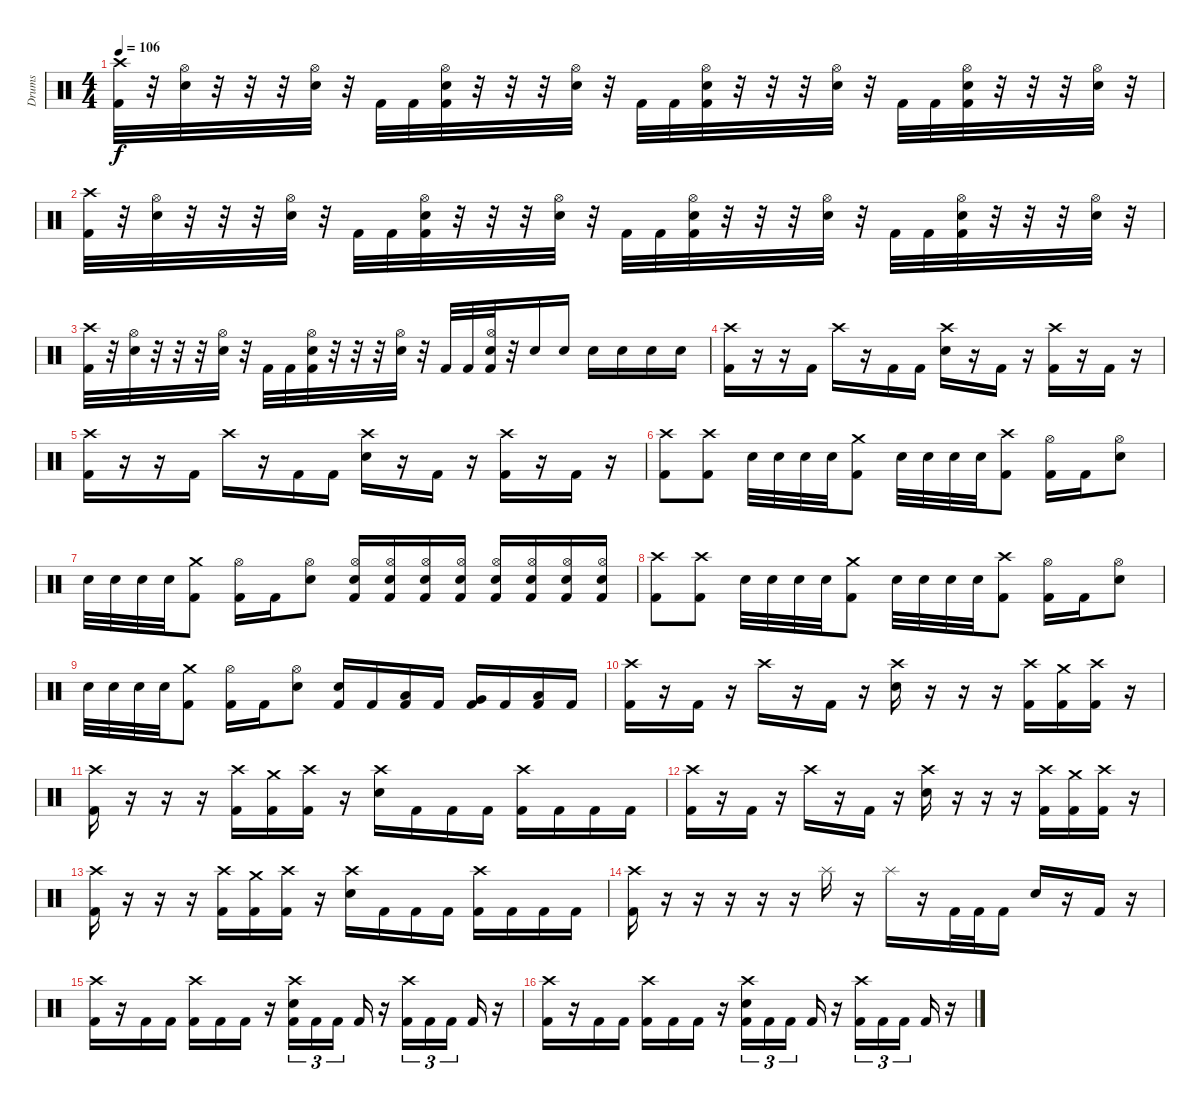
\track ("Drums" "Drums") {instrument percussion}
\staff {score}
\articulation defaults
\ts (4 4)
\tempo 106
\clef neutral
\ks c
("Crash high (hit)" "Kick (hit) 2").32{dy f} r.32 ("Hi-Hat (open)" "Electric Snare (hit)").32 r.32 r.32 r.32 ("Hi-Hat (open)" "Electric Snare (hit)").32 r.32 "Kick (hit) 2".32 "Kick (hit) 2".32 ("Hi-Hat (open)" "Electric Snare (hit)" "Kick (hit) 2").32 r.32 r.32 r.32 ("Hi-Hat (open)" "Electric Snare (hit)").32 r.32 "Kick (hit) 2".32 "Kick (hit) 2".32 ("Hi-Hat (open)" "Electric Snare (hit)" "Kick (hit) 2").32 r.32 r.32 r.32 ("Hi-Hat (open)" "Electric Snare (hit)").32 r.32 "Kick (hit) 2".32 "Kick (hit) 2".32 ("Hi-Hat (open)" "Electric Snare (hit)" "Kick (hit) 2").32 r.32 r.32 r.32 ("Hi-Hat (open)" "Electric Snare (hit)").32 r.32 |
("Crash high (hit)" "Kick (hit) 2").32 r.32 ("Hi-Hat (open)" "Electric Snare (hit)").32 r.32 r.32 r.32 ("Hi-Hat (open)" "Electric Snare (hit)").32 r.32 "Kick (hit) 2".32 "Kick (hit) 2".32 ("Hi-Hat (open)" "Electric Snare (hit)" "Kick (hit) 2").32 r.32 r.32 r.32 ("Hi-Hat (open)" "Electric Snare (hit)").32 r.32 "Kick (hit) 2".32 "Kick (hit) 2".32 ("Hi-Hat (open)" "Electric Snare (hit)" "Kick (hit) 2").32 r.32 r.32 r.32 ("Hi-Hat (open)" "Electric Snare (hit)").32 r.32 "Kick (hit) 2".32 "Kick (hit) 2".32 ("Hi-Hat (open)" "Electric Snare (hit)" "Kick (hit) 2").32 r.32 r.32 r.32 ("Hi-Hat (open)" "Electric Snare (hit)").32 r.32 |
("Crash high (hit)" "Kick (hit) 2").32 r.32 ("Hi-Hat (open)" "Electric Snare (hit)").32 r.32 r.32 r.32 ("Hi-Hat (open)" "Electric Snare (hit)").32 r.32 "Kick (hit) 2".32 "Kick (hit) 2".32 ("Hi-Hat (open)" "Electric Snare (hit)" "Kick (hit) 2").32 r.32 r.32 r.32 ("Hi-Hat (open)" "Electric Snare (hit)").32 r.32 "Kick (hit) 2".32 "Kick (hit) 2".32 ("Hi-Hat (open)" "Electric Snare (hit)" "Kick (hit) 2").32 r.32 "Electric Snare (hit)".16 "Electric Snare (hit)".16 "Electric Snare (hit)".16 "Electric Snare (hit)".16 "Electric Snare (hit)".16 "Electric Snare (hit)".16 |
("Crash high (hit)" "Kick (hit) 2").16 r.16 r.16 "Kick (hit) 2".16 "Crash high (hit)".16 r.16 "Kick (hit) 2".16 "Kick (hit) 2".16 ("Crash high (hit)" "Electric Snare (hit)").16 r.16 "Kick (hit) 2".16 r.16 ("Crash high (hit)" "Kick (hit) 2").16 r.16 "Kick (hit) 2".16 r.16 |
("Crash high (hit)" "Kick (hit) 2").16 r.16 r.16 "Kick (hit) 2".16 "Crash high (hit)".16 r.16 "Kick (hit) 2".16 "Kick (hit) 2".16 ("Crash high (hit)" "Electric Snare (hit)").16 r.16 "Kick (hit) 2".16 r.16 ("Crash high (hit)" "Kick (hit) 2").16 r.16 "Kick (hit) 2".16 r.16 |
("Crash high (hit)" "Kick (hit) 2").8 ("Crash high (hit)" "Kick (hit) 2").8 "Electric Snare (hit)".32 "Electric Snare (hit)".32 "Electric Snare (hit)".32 "Electric Snare (hit)".32 ("Crash medium (hit)" "Kick (hit) 2").8 "Electric Snare (hit)".32 "Electric Snare (hit)".32 "Electric Snare (hit)".32 "Electric Snare (hit)".32 ("Crash high (hit)" "Kick (hit) 2").8 ("Hi-Hat (open)" "Kick (hit) 2").16 "Kick (hit) 2".16 ("Hi-Hat (open)" "Electric Snare (hit)").8 |
"Electric Snare (hit)".32 "Electric Snare (hit)".32 "Electric Snare (hit)".32 "Electric Snare (hit)".32 ("Crash medium (hit)" "Kick (hit) 2").8 ("Hi-Hat (open)" "Kick (hit) 2").16 "Kick (hit) 2".16 ("Hi-Hat (open)" "Electric Snare (hit)").8 ("Hi-Hat (open)" "Electric Snare (hit)" "Kick (hit) 2").16 ("Hi-Hat (open)" "Electric Snare (hit)" "Kick (hit) 2").16 ("Hi-Hat (open)" "Electric Snare (hit)" "Kick (hit) 2").16 ("Hi-Hat (open)" "Electric Snare (hit)" "Kick (hit) 2").16 ("Hi-Hat (open)" "Electric Snare (hit)" "Kick (hit) 2").16 ("Hi-Hat (open)" "Electric Snare (hit)" "Kick (hit) 2").16 ("Hi-Hat (open)" "Electric Snare (hit)" "Kick (hit) 2").16 ("Hi-Hat (open)" "Electric Snare (hit)" "Kick (hit) 2").16 |
("Crash high (hit)" "Kick (hit) 2").8 ("Crash high (hit)" "Kick (hit) 2").8 "Electric Snare (hit)".32 "Electric Snare (hit)".32 "Electric Snare (hit)".32 "Electric Snare (hit)".32 ("Crash medium (hit)" "Kick (hit) 2").8 "Electric Snare (hit)".32 "Electric Snare (hit)".32 "Electric Snare (hit)".32 "Electric Snare (hit)".32 ("Crash high (hit)" "Kick (hit) 2").8 ("Hi-Hat (open)" "Kick (hit) 2").16 "Kick (hit) 2".16 ("Hi-Hat (open)" "Electric Snare (hit)").8 |
"Electric Snare (hit)".32 "Electric Snare (hit)".32 "Electric Snare (hit)".32 "Electric Snare (hit)".32 ("Crash medium (hit)" "Kick (hit) 2").8 ("Hi-Hat (open)" "Kick (hit) 2").16 "Kick (hit) 2".16 ("Hi-Hat (open)" "Electric Snare (hit)").8 ("Electric Snare (hit)" "Kick (hit) 2").16 "Kick (hit) 2".16 ("Low Tom (hit)" "Kick (hit) 2").16 "Kick (hit) 2".16 ("Very Low Tom (hit)" "Kick (hit) 2").16 "Kick (hit) 2".16 ("Low Floor Tom (hit)" "Kick (hit) 2").16 "Kick (hit) 2".16 |
("Crash high (hit)" "Kick (hit) 2").16 r.16 "Kick (hit) 2".16 r.16 "Crash high (hit)".16 r.16 "Kick (hit) 2".16 r.16 ("Crash high (hit)" "Electric Snare (hit)").16 r.16 r.16 r.16 ("Crash high (hit)" "Kick (hit) 2").16 ("Crash medium (hit)" "Kick (hit) 2").16 ("Crash high (hit)" "Kick (hit) 2").16 r.16 |
("Crash high (hit)" "Kick (hit) 2").16 r.16 r.16 r.16 ("Crash high (hit)" "Kick (hit) 2").16 ("Crash medium (hit)" "Kick (hit) 2").16 ("Crash high (hit)" "Kick (hit) 2").16 r.16 ("Crash high (hit)" "Electric Snare (hit)").16 "Kick (hit) 2".16 "Kick (hit) 2".16 "Kick (hit) 2".16 ("Crash high (hit)" "Kick (hit) 2").16 "Kick (hit) 2".16 "Kick (hit) 2".16 "Kick (hit) 2".16 |
("Crash high (hit)" "Kick (hit) 2").16 r.16 "Kick (hit) 2".16 r.16 "Crash high (hit)".16 r.16 "Kick (hit) 2".16 r.16 ("Crash high (hit)" "Electric Snare (hit)").16 r.16 r.16 r.16 ("Crash high (hit)" "Kick (hit) 2").16 ("Crash medium (hit)" "Kick (hit) 2").16 ("Crash high (hit)" "Kick (hit) 2").16 r.16 |
("Crash high (hit)" "Kick (hit) 2").16 r.16 r.16 r.16 ("Crash high (hit)" "Kick (hit) 2").16 ("Crash medium (hit)" "Kick (hit) 2").16 ("Crash high (hit)" "Kick (hit) 2").16 r.16 ("Crash high (hit)" "Electric Snare (hit)").16 "Kick (hit) 2".16 "Kick (hit) 2".16 "Kick (hit) 2".16 ("Crash high (hit)" "Kick (hit) 2").16 "Kick (hit) 2".16 "Kick (hit) 2".16 "Kick (hit) 2".16 |
("Crash high (hit)" "Kick (hit) 2").16 r.16 r.16 r.16 r.16 r.16 "Splash (hit)".16 r.16 "Splash (hit)".16 r.16 "Kick (hit) 2".32 "Kick (hit) 2".32 "Kick (hit) 2".16 "Electric Snare (hit)".16 r.16 "Kick (hit) 2".16 r.16 |
("Crash high (hit)" "Kick (hit) 2").16 r.16 "Kick (hit) 2".16 "Kick (hit) 2".16 ("Crash high (hit)" "Kick (hit) 2").16 "Kick (hit) 2".16 "Kick (hit) 2".16 r.16 ("Crash high (hit)" "Electric Snare (hit)" "Kick (hit) 2").16{tu (3 2)} "Kick (hit) 2".16{tu (3 2)} "Kick (hit) 2".16{tu (3 2) beam splitsecondary} "Kick (hit) 2".16 r.16 ("Crash high (hit)" "Kick (hit) 2").16{tu (3 2)} "Kick (hit) 2".16{tu (3 2)} "Kick (hit) 2".16{tu (3 2) beam splitsecondary} "Kick (hit) 2".16 r.16 |
("Crash high (hit)" "Kick (hit) 2").16 r.16 "Kick (hit) 2".16 "Kick (hit) 2".16 ("Crash high (hit)" "Kick (hit) 2").16 "Kick (hit) 2".16 "Kick (hit) 2".16 r.16 ("Crash high (hit)" "Electric Snare (hit)" "Kick (hit) 2").16{tu (3 2)} "Kick (hit) 2".16{tu (3 2)} "Kick (hit) 2".16{tu (3 2) beam splitsecondary} "Kick (hit) 2".16 r.16 ("Crash high (hit)" "Kick (hit) 2").16{tu (3 2)} "Kick (hit) 2".16{tu (3 2)} "Kick (hit) 2".16{tu (3 2) beam splitsecondary} "Kick (hit) 2".16 r.16
